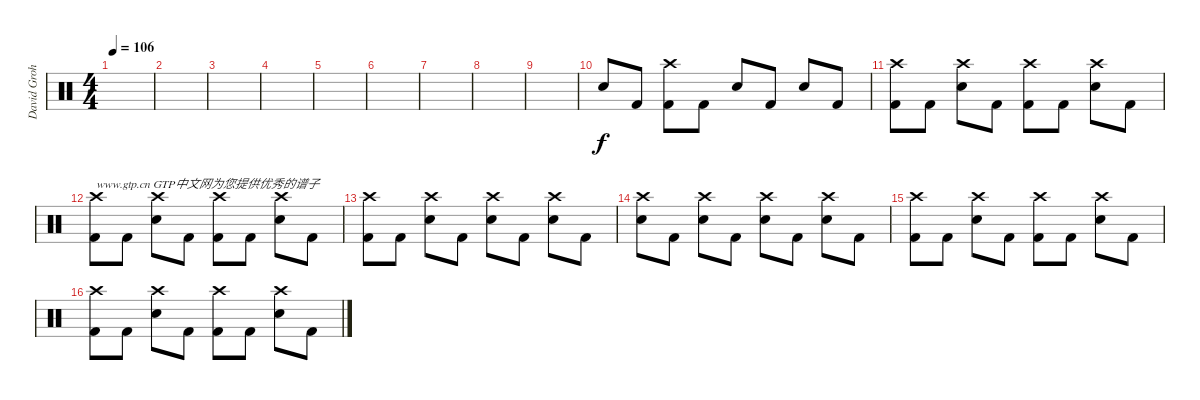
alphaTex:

\track ("David Grohl 2 Crash Style !!" "David Groh") {instrument percussion}
\staff {score}
\articulation defaults
\ts (4 4)
\tempo 106
\clef neutral
\ks c
|
|
|
|
|
|
|
|
|
"Snare (hit) 2".8 "Kick (hit) 2".8 ("Crash high (hit)" "Kick (hit) 2").8 "Kick (hit) 2".8 "Snare (hit) 2".8 "Kick (hit) 2".8 "Snare (hit) 2".8 "Kick (hit) 2".8 |
("Crash high (hit)" "Kick (hit) 2").8 "Kick (hit) 2".8 ("Crash high (hit)" "Snare (hit) 2").8 "Kick (hit) 2".8 ("Crash high (hit)" "Kick (hit) 2").8 "Kick (hit) 2".8 ("Crash high (hit)" "Snare (hit) 2").8 "Kick (hit) 2".8 |
("Crash high (hit)" "Kick (hit) 2").8{txt "www.gtp.cn GTP中文网为您提供优秀的谱子"} "Kick (hit) 2".8 ("Crash high (hit)" "Snare (hit) 2").8 "Kick (hit) 2".8 ("Crash high (hit)" "Kick (hit) 2").8 "Kick (hit) 2".8 ("Crash high (hit)" "Snare (hit) 2").8 "Kick (hit) 2".8 |
("Crash high (hit)" "Kick (hit) 2").8 "Kick (hit) 2".8 ("Crash high (hit)" "Snare (hit) 2").8 "Kick (hit) 2".8 ("Crash high (hit)" "Snare (hit) 2").8 "Kick (hit) 2".8 ("Crash high (hit)" "Snare (hit) 2").8 "Kick (hit) 2".8 |
("Crash high (hit)" "Snare (hit) 2").8 "Kick (hit) 2".8 ("Crash high (hit)" "Snare (hit) 2").8 "Kick (hit) 2".8 ("Crash high (hit)" "Snare (hit) 2").8 "Kick (hit) 2".8 ("Crash high (hit)" "Snare (hit) 2").8 "Kick (hit) 2".8 |
("Crash high (hit)" "Kick (hit) 2").8 "Kick (hit) 2".8 ("Crash high (hit)" "Snare (hit) 2").8 "Kick (hit) 2".8 ("Crash high (hit)" "Kick (hit) 2").8 "Kick (hit) 2".8 ("Crash high (hit)" "Snare (hit) 2").8 "Kick (hit) 2".8 |
("Crash high (hit)" "Kick (hit) 2").8 "Kick (hit) 2".8 ("Crash high (hit)" "Snare (hit) 2").8 "Kick (hit) 2".8 ("Crash high (hit)" "Kick (hit) 2").8 "Kick (hit) 2".8 ("Crash high (hit)" "Snare (hit) 2").8 "Kick (hit) 2".8
